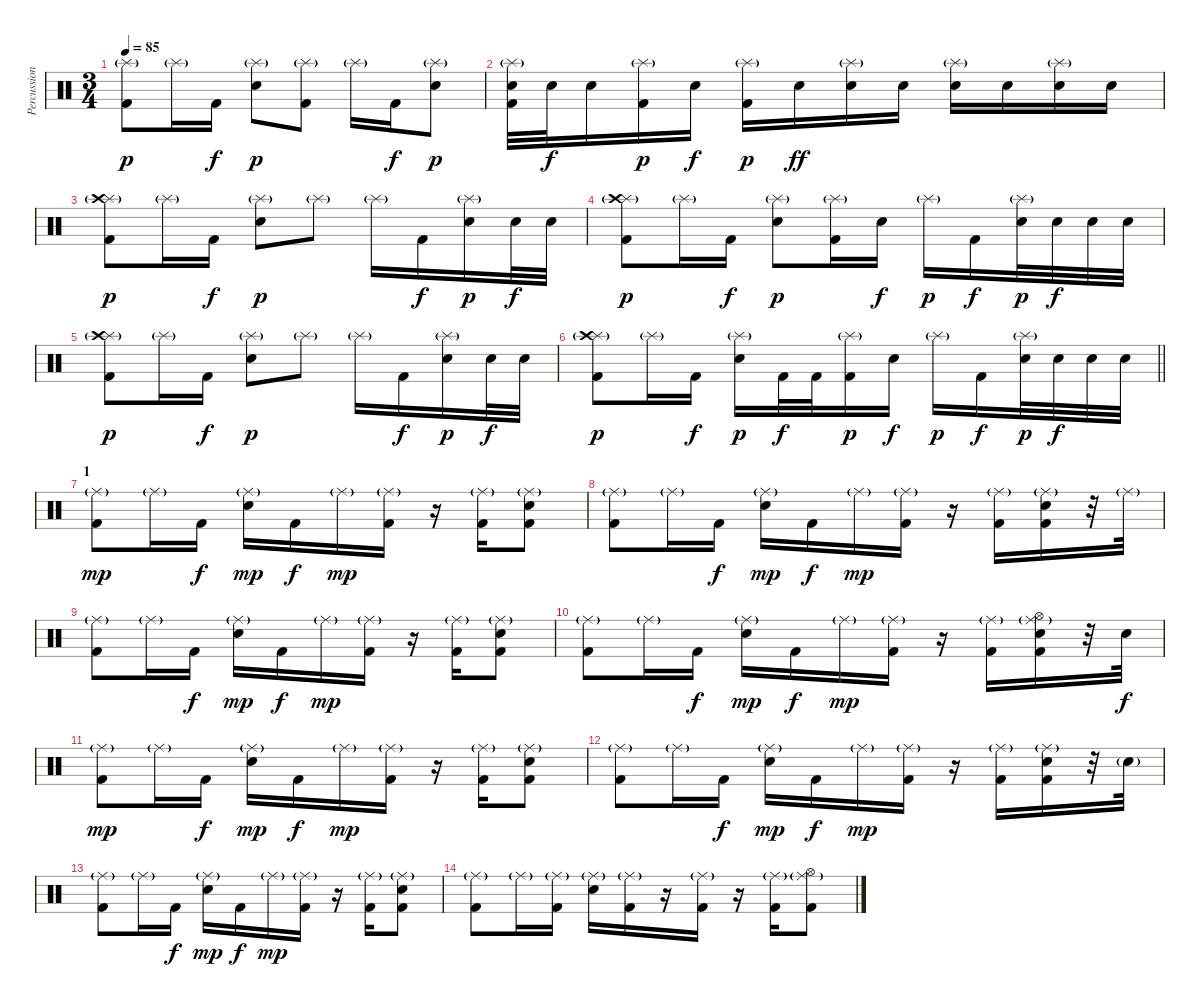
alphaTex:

\track ("Percussion" "Percussion") {instrument percussion}
\staff {score}
\articulation defaults
\ts (3 4)
\tempo 85
\clef neutral
\ks c
("Splash (hit)"{g} "Kick (hit) 2").8{dy p} "Splash (hit)"{g}.16 "Kick (hit) 2".16{dy f} ("Splash (hit)"{g} "Snare (hit) 2").8{dy p} ("Splash (hit)"{g} "Kick (hit) 2").8 "Splash (hit)"{g}.16 "Kick (hit) 2".16{dy f} ("Splash (hit)"{g} "Snare (hit) 2").8{dy p} |
("Splash (hit)"{g} "Snare (hit) 2" "Kick (hit) 2").32 "Snare (hit) 2".32{dy f} "Snare (hit) 2".16 ("Splash (hit)"{g} "Kick (hit) 2").16{dy p} "Snare (hit) 2".16{dy f} ("Splash (hit)"{g} "Kick (hit) 2").16{dy p} "Snare (hit) 2".16{dy ff} ("Splash (hit)"{g} "Snare (hit) 2").16 "Snare (hit) 2".16 ("Splash (hit)"{g} "Snare (hit) 2").16 "Snare (hit) 2".16 ("Splash (hit)"{g} "Snare (hit) 2").16 "Snare (hit) 2".16 |
("Splash (hit)"{g} "Crash high (hit)" "Kick (hit) 2").8{dy p} "Splash (hit)"{g}.16 "Kick (hit) 2".16{dy f} ("Splash (hit)"{g} "Snare (hit) 2").8{dy p} "Splash (hit)"{g}.8 "Splash (hit)"{g}.16 "Kick (hit) 2".16{dy f} ("Splash (hit)"{g} "Snare (hit) 2").16{dy p} "Snare (hit) 2".32{dy f} "Snare (hit) 2".32 |
("Splash (hit)"{g} "Crash high (hit)" "Kick (hit) 2").8{dy p} "Splash (hit)"{g}.16 "Kick (hit) 2".16{dy f} ("Splash (hit)"{g} "Snare (hit) 2").8{dy p} ("Splash (hit)"{g} "Kick (hit) 2").16 "Snare (hit) 2".16{dy f} "Splash (hit)"{g}.16{dy p} "Kick (hit) 2".16{dy f} ("Splash (hit)"{g} "Snare (hit) 2").32{dy p} "Snare (hit) 2".32{dy f} "Snare (hit) 2".32 "Snare (hit) 2".32 |
("Splash (hit)"{g} "Crash high (hit)" "Kick (hit) 2").8{dy p} "Splash (hit)"{g}.16 "Kick (hit) 2".16{dy f} ("Splash (hit)"{g} "Snare (hit) 2").8{dy p} "Splash (hit)"{g}.8 "Splash (hit)"{g}.16 "Kick (hit) 2".16{dy f} ("Splash (hit)"{g} "Snare (hit) 2").16{dy p} "Snare (hit) 2".32{dy f} "Snare (hit) 2".32 |
\barLineRight lightlight
("Splash (hit)"{g} "Crash high (hit)" "Kick (hit) 2").8{dy p} "Splash (hit)"{g}.16 "Kick (hit) 2".16{dy f} ("Splash (hit)"{g} "Snare (hit) 2").16{dy p} "Kick (hit) 2".32{dy f} "Kick (hit) 2".32 ("Splash (hit)"{g} "Kick (hit) 2").16{dy p} "Snare (hit) 2".16{dy f} "Splash (hit)"{g}.16{dy p} "Kick (hit) 2".16{dy f} ("Splash (hit)"{g} "Snare (hit) 2").32{dy p} "Snare (hit) 2".32{dy f} "Snare (hit) 2".32 "Snare (hit) 2".32 |
\section ("" "1")
("Ride (middle)"{g} "Kick (hit) 2").8{dy mp} "Ride (middle)"{g}.16 "Kick (hit) 2".16{dy f} ("Ride (middle)"{g} "Snare (hit) 2").16{dy mp} "Kick (hit) 2".16{dy f} "Ride (middle)"{g}.16{dy mp} ("Ride (middle)"{g} "Kick (hit) 2").16 r.16 ("Ride (middle)"{g} "Kick (hit) 2").16 ("Ride (middle)"{g} "Snare (hit) 2" "Kick (hit) 2").8 |
("Ride (middle)"{g} "Kick (hit) 2").8 "Ride (middle)"{g}.16 "Kick (hit) 2".16{dy f} ("Ride (middle)"{g} "Snare (hit) 2").16{dy mp} "Kick (hit) 2".16{dy f} "Ride (middle)"{g}.16{dy mp} ("Ride (middle)"{g} "Kick (hit) 2").16 r.16 ("Ride (middle)"{g} "Kick (hit) 2").16 ("Ride (middle)"{g} "Snare (hit) 2" "Kick (hit) 2").16 r.32 "Ride (middle)"{g}.32 |
("Ride (middle)"{g} "Kick (hit) 2").8 "Ride (middle)"{g}.16 "Kick (hit) 2".16{dy f} ("Ride (middle)"{g} "Snare (hit) 2").16{dy mp} "Kick (hit) 2".16{dy f} "Ride (middle)"{g}.16{dy mp} ("Ride (middle)"{g} "Kick (hit) 2").16 r.16 ("Ride (middle)"{g} "Kick (hit) 2").16 ("Ride (middle)"{g} "Snare (hit) 2" "Kick (hit) 2").8 |
("Ride (middle)"{g} "Kick (hit) 2").8 "Ride (middle)"{g}.16 "Kick (hit) 2".16{dy f} ("Ride (middle)"{g} "Snare (hit) 2").16{dy mp} "Kick (hit) 2".16{dy f} "Ride (middle)"{g}.16{dy mp} ("Ride (middle)"{g} "Kick (hit) 2").16 r.16 ("Ride (middle)"{g} "Kick (hit) 2").16 ("Ride (middle)"{g} "Hi-Hat (open)" "Snare (hit) 2" "Kick (hit) 2").16 r.32 "Snare (hit) 2".32{dy f} |
("Ride (middle)"{g} "Kick (hit) 2").8{dy mp} "Ride (middle)"{g}.16 "Kick (hit) 2".16{dy f} ("Ride (middle)"{g} "Snare (hit) 2").16{dy mp} "Kick (hit) 2".16{dy f} "Ride (middle)"{g}.16{dy mp} ("Ride (middle)"{g} "Kick (hit) 2").16 r.16 ("Ride (middle)"{g} "Kick (hit) 2").16 ("Ride (middle)"{g} "Snare (hit) 2" "Kick (hit) 2").8 |
("Ride (middle)"{g} "Kick (hit) 2").8 "Ride (middle)"{g}.16 "Kick (hit) 2".16{dy f} ("Ride (middle)"{g} "Snare (hit) 2").16{dy mp} "Kick (hit) 2".16{dy f} "Ride (middle)"{g}.16{dy mp} ("Ride (middle)"{g} "Kick (hit) 2").16 r.16 ("Ride (middle)"{g} "Kick (hit) 2").16 ("Ride (middle)"{g} "Snare (hit) 2" "Kick (hit) 2").16 r.32 "Snare (hit) 2"{g}.32 |
("Ride (middle)"{g} "Kick (hit) 2").8 "Ride (middle)"{g}.16 "Kick (hit) 2".16{dy f} ("Ride (middle)"{g} "Snare (hit) 2").16{dy mp} "Kick (hit) 2".16{dy f} "Ride (middle)"{g}.16{dy mp} ("Ride (middle)"{g} "Kick (hit) 2").16 r.16 ("Ride (middle)"{g} "Kick (hit) 2").16 ("Ride (middle)"{g} "Snare (hit) 2" "Kick (hit) 2").8 |
("Ride (middle)"{g} "Kick (hit) 2").8 "Ride (middle)"{g}.16 ("Ride (middle)"{g} "Kick (hit) 2").16 ("Ride (middle)"{g} "Snare (hit) 2").16 ("Ride (middle)"{g} "Kick (hit) 2").16 r.16 ("Ride (middle)"{g} "Kick (hit) 2").16 r.16 ("Ride (middle)"{g} "Kick (hit) 2").16 ("Ride (middle)"{g} "Hi-Hat (open)" "Kick (hit) 2").8
